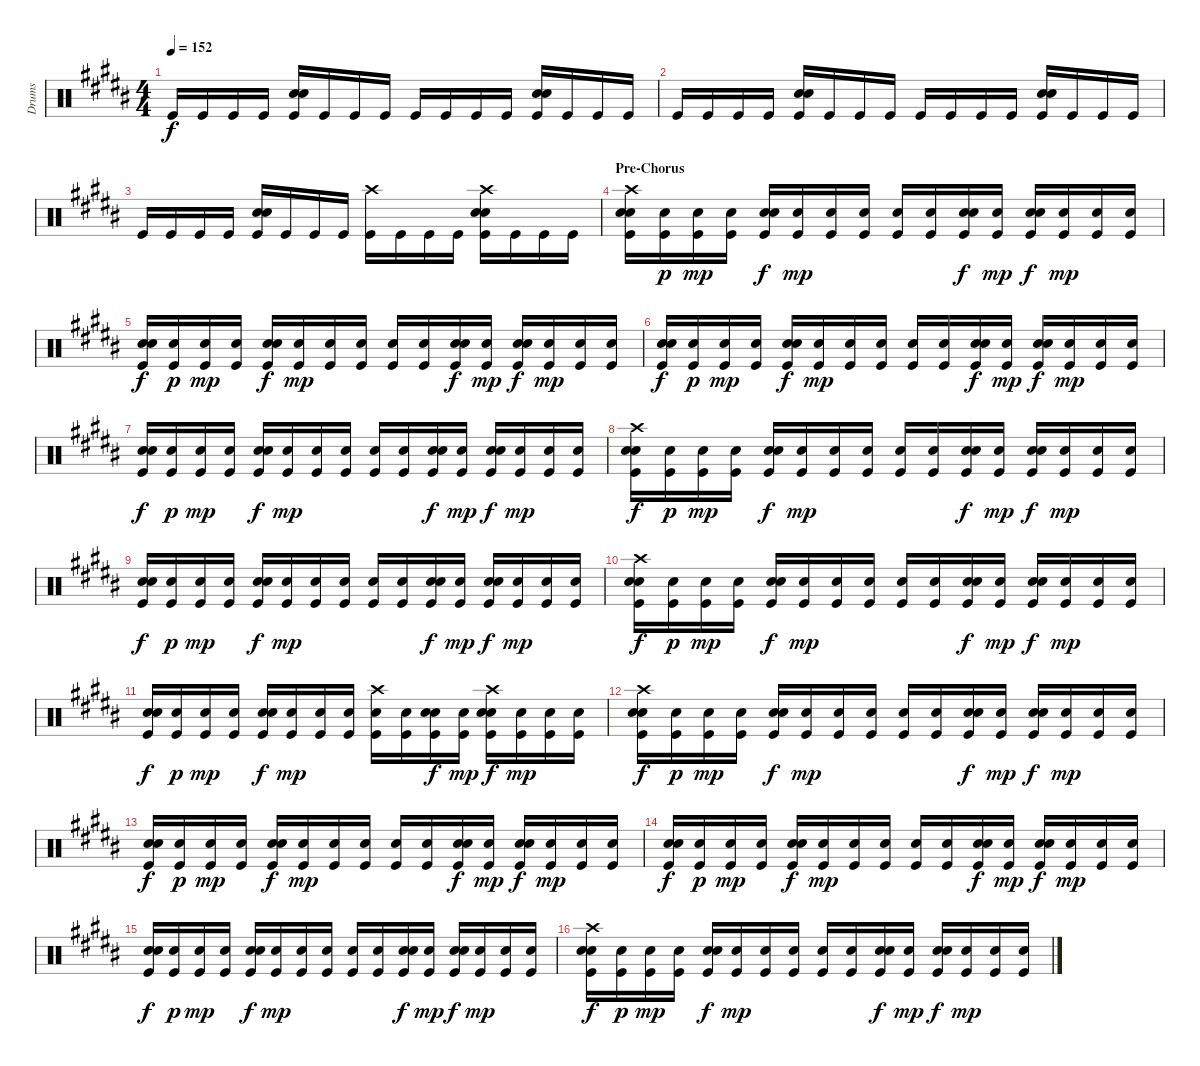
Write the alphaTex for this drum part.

\track ("Drums" "Drums") {instrument percussion}
\staff {score}
\articulation defaults
\ts (4 4)
\tempo 152
\clef neutral
\ks b "Kick (hit)".16{dy f} "Kick (hit)".16 "Kick (hit)".16 "Kick (hit)".16
("Snare (hit) 2" "Electric Snare (hit)" "Kick (hit)").16 "Kick (hit)".16 "Kick (hit)".16 "Kick (hit)".16 "Kick (hit)".16 "Kick (hit)".16 "Kick (hit)".16 "Kick (hit)".16 ("Snare (hit) 2" "Electric Snare (hit)" "Kick (hit)").16 "Kick (hit)".16 "Kick (hit)".16 "Kick (hit)".16 |
"Kick (hit)".16 "Kick (hit)".16 "Kick (hit)".16 "Kick (hit)".16 ("Snare (hit) 2" "Electric Snare (hit)" "Kick (hit)").16 "Kick (hit)".16 "Kick (hit)".16 "Kick (hit)".16 "Kick (hit)".16 "Kick (hit)".16 "Kick (hit)".16 "Kick (hit)".16 ("Snare (hit) 2" "Electric Snare (hit)" "Kick (hit)").16 "Kick (hit)".16 "Kick (hit)".16 "Kick (hit)".16 |
"Kick (hit)".16 "Kick (hit)".16 "Kick (hit)".16 "Kick (hit)".16 ("Snare (hit) 2" "Electric Snare (hit)" "Kick (hit)").16 "Kick (hit)".16 "Kick (hit)".16 "Kick (hit)".16 ("Crash high (hit)" "Kick (hit)").16 "Kick (hit)".16 "Kick (hit)".16 "Kick (hit)".16 ("Crash high (hit)" "Snare (hit) 2" "Electric Snare (hit)" "Kick (hit)").16 "Kick (hit)".16 "Kick (hit)".16 "Kick (hit)".16 |
\section ("" "Pre-Chorus")
("Crash high (hit)" "Electric Snare (hit)" "Snare (hit) 2" "Kick (hit)").16 ("Snare (hit) 2" "Kick (hit)").16{dy p} ("Snare (hit) 2" "Kick (hit)").16{dy mp} ("Snare (hit) 2" "Kick (hit)").16 ("Electric Snare (hit)" "Snare (hit) 2" "Kick (hit)").16{dy f} ("Snare (hit) 2" "Kick (hit)").16{dy mp} ("Snare (hit) 2" "Kick (hit)").16 ("Snare (hit) 2" "Kick (hit)").16 ("Snare (hit) 2" "Kick (hit)").16 ("Snare (hit) 2" "Kick (hit)").16 ("Electric Snare (hit)" "Snare (hit) 2" "Kick (hit)").16{dy f} ("Snare (hit) 2" "Kick (hit)").16{dy mp} ("Electric Snare (hit)" "Snare (hit) 2" "Kick (hit)").16{dy f} ("Snare (hit) 2" "Kick (hit)").16{dy mp} ("Snare (hit) 2" "Kick (hit)").16 ("Snare (hit) 2" "Kick (hit)").16 |
("Electric Snare (hit)" "Snare (hit) 2" "Kick (hit)").16{dy f} ("Snare (hit) 2" "Kick (hit)").16{dy p} ("Snare (hit) 2" "Kick (hit)").16{dy mp} ("Snare (hit) 2" "Kick (hit)").16 ("Electric Snare (hit)" "Snare (hit) 2" "Kick (hit)").16{dy f} ("Snare (hit) 2" "Kick (hit)").16{dy mp} ("Snare (hit) 2" "Kick (hit)").16 ("Snare (hit) 2" "Kick (hit)").16 ("Snare (hit) 2" "Kick (hit)").16 ("Snare (hit) 2" "Kick (hit)").16 ("Electric Snare (hit)" "Snare (hit) 2" "Kick (hit)").16{dy f} ("Snare (hit) 2" "Kick (hit)").16{dy mp} ("Electric Snare (hit)" "Snare (hit) 2" "Kick (hit)").16{dy f} ("Snare (hit) 2" "Kick (hit)").16{dy mp} ("Snare (hit) 2" "Kick (hit)").16 ("Snare (hit) 2" "Kick (hit)").16 |
("Electric Snare (hit)" "Snare (hit) 2" "Kick (hit)").16{dy f} ("Snare (hit) 2" "Kick (hit)").16{dy p} ("Snare (hit) 2" "Kick (hit)").16{dy mp} ("Snare (hit) 2" "Kick (hit)").16 ("Electric Snare (hit)" "Snare (hit) 2" "Kick (hit)").16{dy f} ("Snare (hit) 2" "Kick (hit)").16{dy mp} ("Snare (hit) 2" "Kick (hit)").16 ("Snare (hit) 2" "Kick (hit)").16 ("Snare (hit) 2" "Kick (hit)").16 ("Snare (hit) 2" "Kick (hit)").16 ("Electric Snare (hit)" "Snare (hit) 2" "Kick (hit)").16{dy f} ("Snare (hit) 2" "Kick (hit)").16{dy mp} ("Electric Snare (hit)" "Snare (hit) 2" "Kick (hit)").16{dy f} ("Snare (hit) 2" "Kick (hit)").16{dy mp} ("Snare (hit) 2" "Kick (hit)").16 ("Snare (hit) 2" "Kick (hit)").16 |
("Electric Snare (hit)" "Snare (hit) 2" "Kick (hit)").16{dy f} ("Snare (hit) 2" "Kick (hit)").16{dy p} ("Snare (hit) 2" "Kick (hit)").16{dy mp} ("Snare (hit) 2" "Kick (hit)").16 ("Electric Snare (hit)" "Snare (hit) 2" "Kick (hit)").16{dy f} ("Snare (hit) 2" "Kick (hit)").16{dy mp} ("Snare (hit) 2" "Kick (hit)").16 ("Snare (hit) 2" "Kick (hit)").16 ("Snare (hit) 2" "Kick (hit)").16 ("Snare (hit) 2" "Kick (hit)").16 ("Electric Snare (hit)" "Snare (hit) 2" "Kick (hit)").16{dy f} ("Snare (hit) 2" "Kick (hit)").16{dy mp} ("Electric Snare (hit)" "Snare (hit) 2" "Kick (hit)").16{dy f} ("Snare (hit) 2" "Kick (hit)").16{dy mp} ("Snare (hit) 2" "Kick (hit)").16 ("Snare (hit) 2" "Kick (hit)").16 |
("Crash high (hit)" "Electric Snare (hit)" "Snare (hit) 2" "Kick (hit)").16{dy f} ("Snare (hit) 2" "Kick (hit)").16{dy p} ("Snare (hit) 2" "Kick (hit)").16{dy mp} ("Snare (hit) 2" "Kick (hit)").16 ("Electric Snare (hit)" "Snare (hit) 2" "Kick (hit)").16{dy f} ("Snare (hit) 2" "Kick (hit)").16{dy mp} ("Snare (hit) 2" "Kick (hit)").16 ("Snare (hit) 2" "Kick (hit)").16 ("Snare (hit) 2" "Kick (hit)").16 ("Snare (hit) 2" "Kick (hit)").16 ("Electric Snare (hit)" "Snare (hit) 2" "Kick (hit)").16{dy f} ("Snare (hit) 2" "Kick (hit)").16{dy mp} ("Electric Snare (hit)" "Snare (hit) 2" "Kick (hit)").16{dy f} ("Snare (hit) 2" "Kick (hit)").16{dy mp} ("Snare (hit) 2" "Kick (hit)").16 ("Snare (hit) 2" "Kick (hit)").16 |
("Electric Snare (hit)" "Snare (hit) 2" "Kick (hit)").16{dy f} ("Snare (hit) 2" "Kick (hit)").16{dy p} ("Snare (hit) 2" "Kick (hit)").16{dy mp} ("Snare (hit) 2" "Kick (hit)").16 ("Electric Snare (hit)" "Snare (hit) 2" "Kick (hit)").16{dy f} ("Snare (hit) 2" "Kick (hit)").16{dy mp} ("Snare (hit) 2" "Kick (hit)").16 ("Snare (hit) 2" "Kick (hit)").16 ("Snare (hit) 2" "Kick (hit)").16 ("Snare (hit) 2" "Kick (hit)").16 ("Electric Snare (hit)" "Snare (hit) 2" "Kick (hit)").16{dy f} ("Snare (hit) 2" "Kick (hit)").16{dy mp} ("Electric Snare (hit)" "Snare (hit) 2" "Kick (hit)").16{dy f} ("Snare (hit) 2" "Kick (hit)").16{dy mp} ("Snare (hit) 2" "Kick (hit)").16 ("Snare (hit) 2" "Kick (hit)").16 |
("Crash high (hit)" "Electric Snare (hit)" "Snare (hit) 2" "Kick (hit)").16{dy f} ("Snare (hit) 2" "Kick (hit)").16{dy p} ("Snare (hit) 2" "Kick (hit)").16{dy mp} ("Snare (hit) 2" "Kick (hit)").16 ("Electric Snare (hit)" "Snare (hit) 2" "Kick (hit)").16{dy f} ("Snare (hit) 2" "Kick (hit)").16{dy mp} ("Snare (hit) 2" "Kick (hit)").16 ("Snare (hit) 2" "Kick (hit)").16 ("Snare (hit) 2" "Kick (hit)").16 ("Snare (hit) 2" "Kick (hit)").16 ("Electric Snare (hit)" "Snare (hit) 2" "Kick (hit)").16{dy f} ("Snare (hit) 2" "Kick (hit)").16{dy mp} ("Electric Snare (hit)" "Snare (hit) 2" "Kick (hit)").16{dy f} ("Snare (hit) 2" "Kick (hit)").16{dy mp} ("Snare (hit) 2" "Kick (hit)").16 ("Snare (hit) 2" "Kick (hit)").16 |
("Electric Snare (hit)" "Snare (hit) 2" "Kick (hit)").16{dy f} ("Snare (hit) 2" "Kick (hit)").16{dy p} ("Snare (hit) 2" "Kick (hit)").16{dy mp} ("Snare (hit) 2" "Kick (hit)").16 ("Electric Snare (hit)" "Snare (hit) 2" "Kick (hit)").16{dy f} ("Snare (hit) 2" "Kick (hit)").16{dy mp} ("Snare (hit) 2" "Kick (hit)").16 ("Snare (hit) 2" "Kick (hit)").16 ("Crash high (hit)" "Snare (hit) 2" "Kick (hit)").16 ("Snare (hit) 2" "Kick (hit)").16 ("Electric Snare (hit)" "Snare (hit) 2" "Kick (hit)").16{dy f} ("Snare (hit) 2" "Kick (hit)").16{dy mp} ("Crash high (hit)" "Electric Snare (hit)" "Snare (hit) 2" "Kick (hit)").16{dy f} ("Snare (hit) 2" "Kick (hit)").16{dy mp} ("Snare (hit) 2" "Kick (hit)").16 ("Snare (hit) 2" "Kick (hit)").16 |
("Crash high (hit)" "Electric Snare (hit)" "Snare (hit) 2" "Kick (hit)").16{dy f} ("Snare (hit) 2" "Kick (hit)").16{dy p} ("Snare (hit) 2" "Kick (hit)").16{dy mp} ("Snare (hit) 2" "Kick (hit)").16 ("Electric Snare (hit)" "Snare (hit) 2" "Kick (hit)").16{dy f} ("Snare (hit) 2" "Kick (hit)").16{dy mp} ("Snare (hit) 2" "Kick (hit)").16 ("Snare (hit) 2" "Kick (hit)").16 ("Snare (hit) 2" "Kick (hit)").16 ("Snare (hit) 2" "Kick (hit)").16 ("Electric Snare (hit)" "Snare (hit) 2" "Kick (hit)").16{dy f} ("Snare (hit) 2" "Kick (hit)").16{dy mp} ("Electric Snare (hit)" "Snare (hit) 2" "Kick (hit)").16{dy f} ("Snare (hit) 2" "Kick (hit)").16{dy mp} ("Snare (hit) 2" "Kick (hit)").16 ("Snare (hit) 2" "Kick (hit)").16 |
("Electric Snare (hit)" "Snare (hit) 2" "Kick (hit)").16{dy f} ("Snare (hit) 2" "Kick (hit)").16{dy p} ("Snare (hit) 2" "Kick (hit)").16{dy mp} ("Snare (hit) 2" "Kick (hit)").16 ("Electric Snare (hit)" "Snare (hit) 2" "Kick (hit)").16{dy f} ("Snare (hit) 2" "Kick (hit)").16{dy mp} ("Snare (hit) 2" "Kick (hit)").16 ("Snare (hit) 2" "Kick (hit)").16 ("Snare (hit) 2" "Kick (hit)").16 ("Snare (hit) 2" "Kick (hit)").16 ("Electric Snare (hit)" "Snare (hit) 2" "Kick (hit)").16{dy f} ("Snare (hit) 2" "Kick (hit)").16{dy mp} ("Electric Snare (hit)" "Snare (hit) 2" "Kick (hit)").16{dy f} ("Snare (hit) 2" "Kick (hit)").16{dy mp} ("Snare (hit) 2" "Kick (hit)").16 ("Snare (hit) 2" "Kick (hit)").16 |
("Electric Snare (hit)" "Snare (hit) 2" "Kick (hit)").16{dy f} ("Snare (hit) 2" "Kick (hit)").16{dy p} ("Snare (hit) 2" "Kick (hit)").16{dy mp} ("Snare (hit) 2" "Kick (hit)").16 ("Electric Snare (hit)" "Snare (hit) 2" "Kick (hit)").16{dy f} ("Snare (hit) 2" "Kick (hit)").16{dy mp} ("Snare (hit) 2" "Kick (hit)").16 ("Snare (hit) 2" "Kick (hit)").16 ("Snare (hit) 2" "Kick (hit)").16 ("Snare (hit) 2" "Kick (hit)").16 ("Electric Snare (hit)" "Snare (hit) 2" "Kick (hit)").16{dy f} ("Snare (hit) 2" "Kick (hit)").16{dy mp} ("Electric Snare (hit)" "Snare (hit) 2" "Kick (hit)").16{dy f} ("Snare (hit) 2" "Kick (hit)").16{dy mp} ("Snare (hit) 2" "Kick (hit)").16 ("Snare (hit) 2" "Kick (hit)").16 |
("Electric Snare (hit)" "Snare (hit) 2" "Kick (hit)").16{dy f} ("Snare (hit) 2" "Kick (hit)").16{dy p} ("Snare (hit) 2" "Kick (hit)").16{dy mp} ("Snare (hit) 2" "Kick (hit)").16 ("Electric Snare (hit)" "Snare (hit) 2" "Kick (hit)").16{dy f} ("Snare (hit) 2" "Kick (hit)").16{dy mp} ("Snare (hit) 2" "Kick (hit)").16 ("Snare (hit) 2" "Kick (hit)").16 ("Snare (hit) 2" "Kick (hit)").16 ("Snare (hit) 2" "Kick (hit)").16 ("Electric Snare (hit)" "Snare (hit) 2" "Kick (hit)").16{dy f} ("Snare (hit) 2" "Kick (hit)").16{dy mp} ("Electric Snare (hit)" "Snare (hit) 2" "Kick (hit)").16{dy f} ("Snare (hit) 2" "Kick (hit)").16{dy mp} ("Snare (hit) 2" "Kick (hit)").16 ("Snare (hit) 2" "Kick (hit)").16 |
("Crash high (hit)" "Electric Snare (hit)" "Snare (hit) 2" "Kick (hit)").16{dy f} ("Snare (hit) 2" "Kick (hit)").16{dy p} ("Snare (hit) 2" "Kick (hit)").16{dy mp} ("Snare (hit) 2" "Kick (hit)").16 ("Electric Snare (hit)" "Snare (hit) 2" "Kick (hit)").16{dy f} ("Snare (hit) 2" "Kick (hit)").16{dy mp} ("Snare (hit) 2" "Kick (hit)").16 ("Snare (hit) 2" "Kick (hit)").16 ("Snare (hit) 2" "Kick (hit)").16 ("Snare (hit) 2" "Kick (hit)").16 ("Electric Snare (hit)" "Snare (hit) 2" "Kick (hit)").16{dy f} ("Snare (hit) 2" "Kick (hit)").16{dy mp} ("Electric Snare (hit)" "Snare (hit) 2" "Kick (hit)").16{dy f} ("Snare (hit) 2" "Kick (hit)").16{dy mp} ("Snare (hit) 2" "Kick (hit)").16 ("Snare (hit) 2" "Kick (hit)").16
